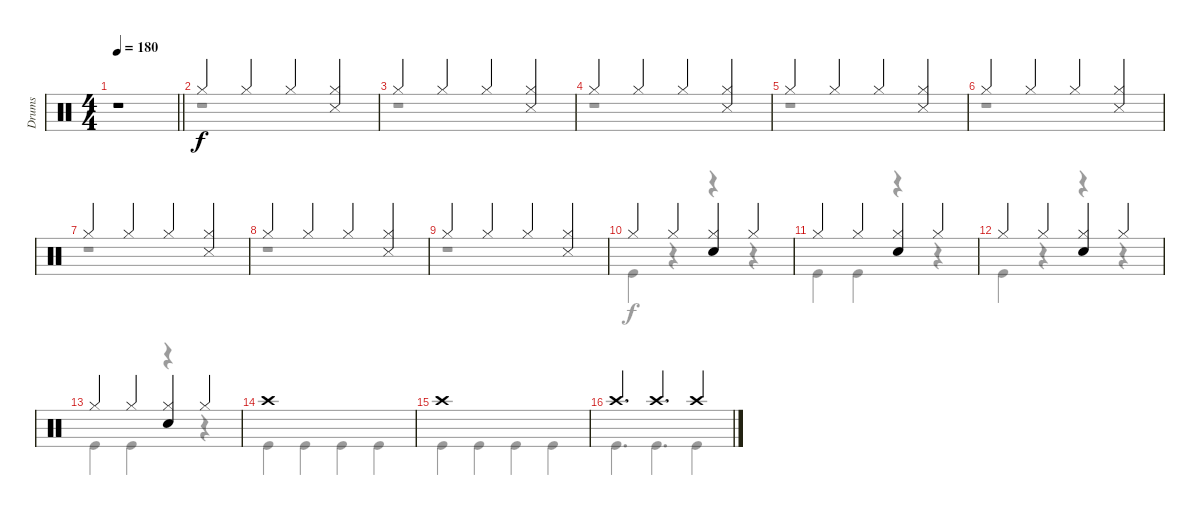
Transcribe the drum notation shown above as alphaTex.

\track ("Drums" "Drums") {instrument percussion}
\staff {score}
\articulation defaults
\voice
\ts (4 4)
\tempo 180
\clef neutral
\barLineRight lightlight
\ks c
r.1{dy f} |
"Hi-Hat (closed)".4 "Hi-Hat (closed)".4 "Hi-Hat (closed)".4 ("Hi-Hat (closed)" "Snare (side stick) 3").4 |
"Hi-Hat (closed)".4 "Hi-Hat (closed)".4 "Hi-Hat (closed)".4 ("Hi-Hat (closed)" "Snare (side stick) 3").4 |
"Hi-Hat (closed)".4 "Hi-Hat (closed)".4 "Hi-Hat (closed)".4 ("Hi-Hat (closed)" "Snare (side stick) 3").4 |
"Hi-Hat (closed)".4 "Hi-Hat (closed)".4 "Hi-Hat (closed)".4 ("Hi-Hat (closed)" "Snare (side stick) 3").4 |
"Hi-Hat (closed)".4 "Hi-Hat (closed)".4 "Hi-Hat (closed)".4 ("Hi-Hat (closed)" "Snare (side stick) 3").4 |
"Hi-Hat (closed)".4 "Hi-Hat (closed)".4 "Hi-Hat (closed)".4 ("Hi-Hat (closed)" "Snare (side stick) 3").4 |
"Hi-Hat (closed)".4 "Hi-Hat (closed)".4 "Hi-Hat (closed)".4 ("Hi-Hat (closed)" "Snare (side stick) 3").4 |
"Hi-Hat (closed)".4 "Hi-Hat (closed)".4 "Hi-Hat (closed)".4 ("Hi-Hat (closed)" "Snare (side stick) 3").4 |
"Hi-Hat (closed)".4 "Hi-Hat (closed)".4 ("Hi-Hat (closed)" "Snare (hit) 2").4 "Hi-Hat (closed)".4 |
"Hi-Hat (closed)".4 "Hi-Hat (closed)".4 ("Hi-Hat (closed)" "Snare (hit) 2").4 "Hi-Hat (closed)".4 |
"Hi-Hat (closed)".4 "Hi-Hat (closed)".4 ("Hi-Hat (closed)" "Snare (hit) 2").4 "Hi-Hat (closed)".4 |
"Hi-Hat (closed)".4 "Hi-Hat (closed)".4 ("Hi-Hat (closed)" "Snare (hit) 2").4 "Hi-Hat (closed)".4 |
"Crash high (hit)".1 |
"Crash high (hit)".1 |
"Crash high (hit)".4{d} "Crash high (hit)".4{d} "Crash high (hit)".4
\voice
\clef neutral
\ottava regular
\simile none
\barLineRight lightlight
\ks c
|
r.1 |
r.1 |
r.1 |
r.1 |
r.1 |
r.1 |
r.1 |
r.1 |
"Kick (hit)".4 r.4 r.4 r.4 |
"Kick (hit)".4 "Kick (hit)".4 r.4 r.4 |
"Kick (hit)".4 r.4 r.4 r.4 |
"Kick (hit)".4 "Kick (hit)".4 r.4 r.4 |
"Kick (hit)".4 "Kick (hit)".4 "Kick (hit)".4 "Kick (hit)".4 |
"Kick (hit)".4 "Kick (hit)".4 "Kick (hit)".4 "Kick (hit)".4 |
"Kick (hit)".4{d} "Kick (hit)".4{d} "Kick (hit)".4
